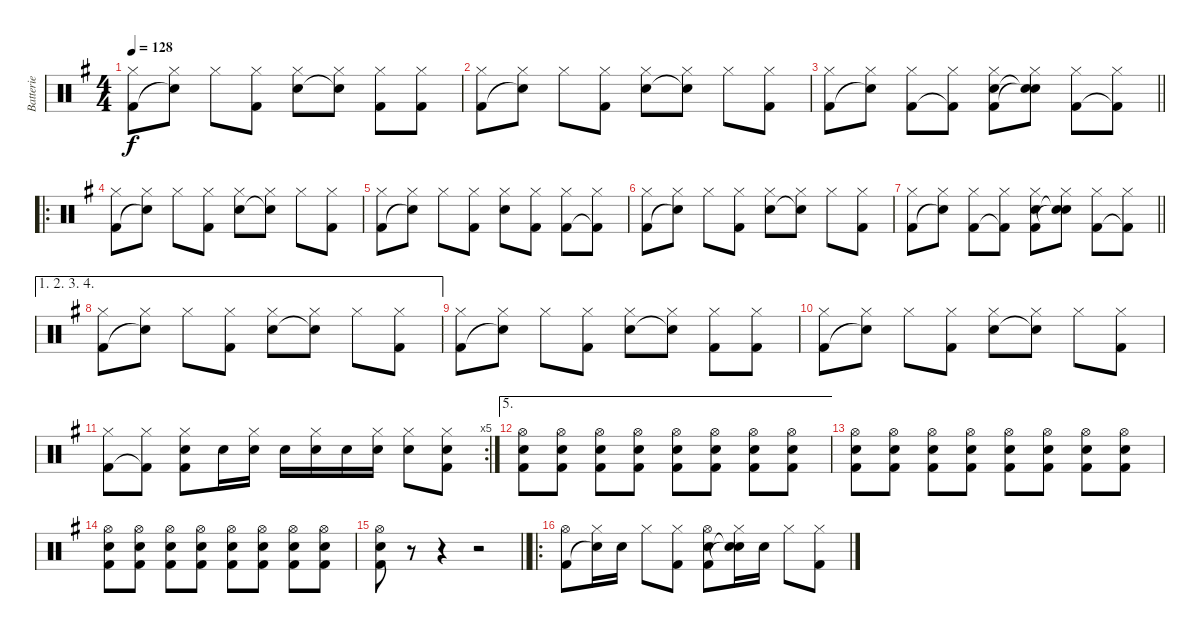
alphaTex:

\track ("Batterie" "Batterie") {instrument percussion}
\staff {score}
\articulation defaults
\ts (4 4)
\tempo 128
\clef neutral
\ks g
("Hi-Hat (closed)" "Kick (hit) 2").8{dy f} ("Hi-Hat (closed)" "Snare (hit)"{t}).8 "Hi-Hat (closed)".8 ("Hi-Hat (closed)" "Kick (hit) 2").8 ("Hi-Hat (closed)" "Snare (hit) 2").8 ("Hi-Hat (closed)" "Snare (hit)"{t}).8 ("Hi-Hat (closed)" "Kick (hit) 2").8 ("Hi-Hat (closed)" "Kick (hit) 2").8 |
("Hi-Hat (closed)" "Kick (hit) 2").8 ("Hi-Hat (closed)" "Snare (hit)"{t}).8 "Hi-Hat (closed)".8 ("Hi-Hat (closed)" "Kick (hit) 2").8 ("Hi-Hat (closed)" "Snare (hit) 2").8 ("Hi-Hat (closed)" "Snare (hit)"{t}).8 "Hi-Hat (closed)".8 ("Hi-Hat (closed)" "Kick (hit) 2").8 |
\barLineRight lightlight
("Hi-Hat (closed)" "Kick (hit) 2").8 ("Hi-Hat (closed)" "Snare (hit)"{t}).8 ("Hi-Hat (closed)" "Kick (hit) 2").8 ("Hi-Hat (closed)" "Kick (hit) 2"{t}).8 ("Hi-Hat (closed)" "Snare (hit) 2" "Kick (hit) 2").8 ("Hi-Hat (closed)" "Snare (hit)"{t} "Snare (hit)"{t}).8 ("Hi-Hat (closed)" "Kick (hit) 2").8 ("Hi-Hat (closed)" "Kick (hit) 2"{t}).8 |
\ro
("Hi-Hat (closed)" "Kick (hit) 2").8 ("Hi-Hat (closed)" "Snare (hit)"{t}).8 "Hi-Hat (closed)".8 ("Hi-Hat (closed)" "Kick (hit) 2").8 ("Hi-Hat (closed)" "Snare (hit) 2").8 ("Hi-Hat (closed)" "Snare (hit)"{t}).8 "Hi-Hat (closed)".8 ("Hi-Hat (closed)" "Kick (hit) 2").8 |
("Hi-Hat (closed)" "Kick (hit) 2").8 ("Hi-Hat (closed)" "Snare (hit)"{t}).8 "Hi-Hat (closed)".8 ("Hi-Hat (closed)" "Kick (hit) 2").8 ("Hi-Hat (closed)" "Snare (hit) 2").8 ("Hi-Hat (closed)" "Kick (hit) 2").8 ("Hi-Hat (closed)" "Kick (hit) 2").8 ("Hi-Hat (closed)" "Kick (hit) 2"{t}).8 |
("Hi-Hat (closed)" "Kick (hit) 2").8 ("Hi-Hat (closed)" "Snare (hit)"{t}).8 "Hi-Hat (closed)".8 ("Hi-Hat (closed)" "Kick (hit) 2").8 ("Hi-Hat (closed)" "Snare (hit) 2").8 ("Hi-Hat (closed)" "Snare (hit)"{t}).8 "Hi-Hat (closed)".8 ("Hi-Hat (closed)" "Kick (hit) 2").8 |
\barLineRight lightlight
("Hi-Hat (closed)" "Kick (hit) 2").8 ("Hi-Hat (closed)" "Snare (hit)"{t}).8 ("Hi-Hat (closed)" "Kick (hit) 2").8 ("Hi-Hat (closed)" "Kick (hit) 2"{t}).8 ("Hi-Hat (closed)" "Snare (hit) 2" "Kick (hit) 2").8 ("Hi-Hat (closed)" "Snare (hit)"{t} "Snare (hit)"{t}).8 ("Hi-Hat (closed)" "Kick (hit) 2").8 ("Hi-Hat (closed)" "Kick (hit) 2"{t}).8 |
\ae (1 2 3 4)
("Hi-Hat (closed)" "Kick (hit) 2").8 ("Hi-Hat (closed)" "Snare (hit)"{t}).8 "Hi-Hat (closed)".8 ("Hi-Hat (closed)" "Kick (hit) 2").8 ("Hi-Hat (closed)" "Snare (hit) 2").8 ("Hi-Hat (closed)" "Snare (hit)"{t}).8 "Hi-Hat (closed)".8 ("Hi-Hat (closed)" "Kick (hit) 2").8 |
("Hi-Hat (closed)" "Kick (hit) 2").8 ("Hi-Hat (closed)" "Snare (hit)"{t}).8 "Hi-Hat (closed)".8 ("Hi-Hat (closed)" "Kick (hit) 2").8 ("Hi-Hat (closed)" "Snare (hit) 2").8 ("Hi-Hat (closed)" "Snare (hit)"{t}).8 ("Hi-Hat (closed)" "Kick (hit) 2").8 ("Hi-Hat (closed)" "Kick (hit) 2").8 |
("Hi-Hat (closed)" "Kick (hit) 2").8 ("Hi-Hat (closed)" "Snare (hit)"{t}).8 "Hi-Hat (closed)".8 ("Hi-Hat (closed)" "Kick (hit) 2").8 ("Hi-Hat (closed)" "Snare (hit) 2").8 ("Hi-Hat (closed)" "Snare (hit)"{t}).8 "Hi-Hat (closed)".8 ("Hi-Hat (closed)" "Kick (hit) 2").8 |
\rc 5
("Hi-Hat (closed)" "Kick (hit) 2").8 ("Hi-Hat (closed)" "Kick (hit) 2"{t}).8 ("Hi-Hat (closed)" "Snare (hit) 2" "Kick (hit) 2").8 "Snare (hit) 2".16 ("Hi-Hat (closed)" "Snare (hit) 2").16 "Snare (hit) 2".16 ("Hi-Hat (closed)" "Snare (hit) 2").16 "Snare (hit) 2".16 ("Hi-Hat (closed)" "Snare (hit) 2").16 ("Hi-Hat (closed)" "Snare (hit) 2").8 ("Hi-Hat (closed)" "Snare (hit) 2" "Kick (hit) 2").8 |
\ae 5
("Hi-Hat (open)" "Snare (hit) 2" "Kick (hit) 2").8 ("Hi-Hat (open)" "Snare (hit) 2" "Kick (hit) 2").8 ("Hi-Hat (open)" "Snare (hit) 2" "Kick (hit) 2").8 ("Hi-Hat (open)" "Snare (hit) 2" "Kick (hit) 2").8 ("Hi-Hat (open)" "Snare (hit) 2" "Kick (hit) 2").8 ("Hi-Hat (open)" "Snare (hit) 2" "Kick (hit) 2").8 ("Hi-Hat (open)" "Snare (hit) 2" "Kick (hit) 2").8 ("Hi-Hat (open)" "Snare (hit) 2" "Kick (hit) 2").8 |
("Hi-Hat (open)" "Snare (hit) 2" "Kick (hit) 2").8 ("Hi-Hat (open)" "Snare (hit) 2" "Kick (hit) 2").8 ("Hi-Hat (open)" "Snare (hit) 2" "Kick (hit) 2").8 ("Hi-Hat (open)" "Snare (hit) 2" "Kick (hit) 2").8 ("Hi-Hat (open)" "Snare (hit) 2" "Kick (hit) 2").8 ("Hi-Hat (open)" "Snare (hit) 2" "Kick (hit) 2").8 ("Hi-Hat (open)" "Snare (hit) 2" "Kick (hit) 2").8 ("Hi-Hat (open)" "Snare (hit) 2" "Kick (hit) 2").8 |
("Hi-Hat (open)" "Snare (hit) 2" "Kick (hit) 2").8 ("Hi-Hat (open)" "Snare (hit) 2" "Kick (hit) 2").8 ("Hi-Hat (open)" "Snare (hit) 2" "Kick (hit) 2").8 ("Hi-Hat (open)" "Snare (hit) 2" "Kick (hit) 2").8 ("Hi-Hat (open)" "Snare (hit) 2" "Kick (hit) 2").8 ("Hi-Hat (open)" "Snare (hit) 2" "Kick (hit) 2").8 ("Hi-Hat (open)" "Snare (hit) 2" "Kick (hit) 2").8 ("Hi-Hat (open)" "Snare (hit) 2" "Kick (hit) 2").8 |
\barLineRight lightlight
("Hi-Hat (open)" "Snare (hit) 2" "Kick (hit) 2").8 r.8 r.4 r.2 |
\ro
("Hi-Hat (open)" "Kick (hit) 2").8 ("Hi-Hat (closed)" "Snare (hit)"{t}).16 "Snare (hit) 2".16 "Hi-Hat (closed)".8 ("Hi-Hat (closed)" "Kick (hit) 2").8 ("Hi-Hat (open)" "Snare (hit) 2" "Kick (hit) 2").8 ("Hi-Hat (closed)" "Snare (hit)"{t} "Snare (hit)"{t}).16 "Snare (hit) 2".16 "Hi-Hat (closed)".8 ("Hi-Hat (closed)" "Kick (hit) 2").8
